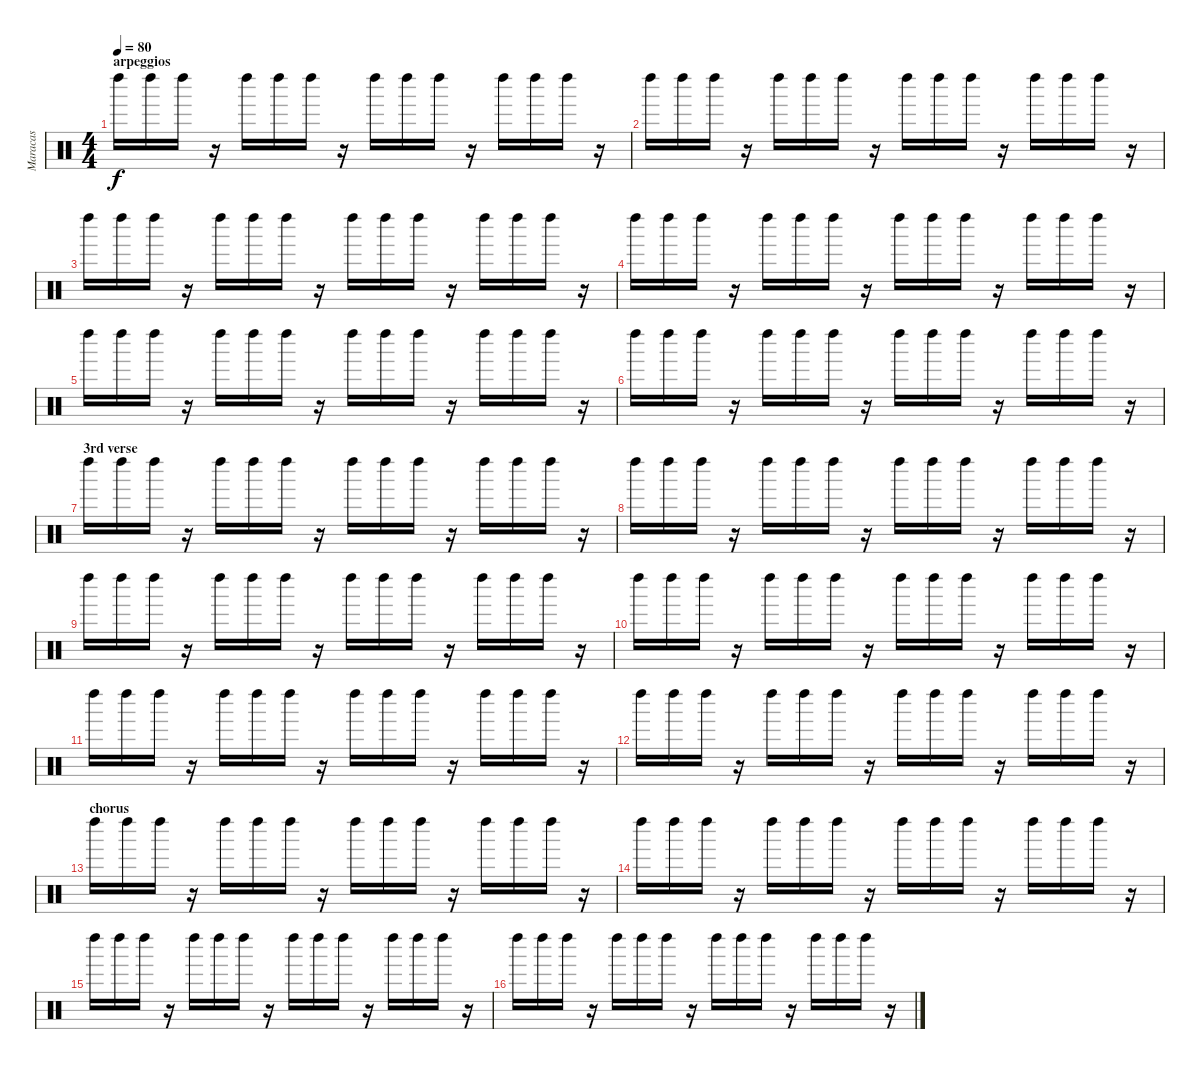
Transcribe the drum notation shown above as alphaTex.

\track ("Maracas" "Maracas") {instrument percussion}
\staff {score}
\articulation defaults
\ts (4 4)
\section ("" "arpeggios")
\tempo 80
\clef neutral
\ks aminor "Left Maraca (hit)".16{dy f} "Left Maraca (hit)".16 "Left Maraca (hit)".16
r.16 "Left Maraca (hit)".16 "Left Maraca (hit)".16 "Left Maraca (hit)".16 r.16 "Left Maraca (hit)".16 "Left Maraca (hit)".16 "Left Maraca (hit)".16 r.16 "Left Maraca (hit)".16 "Left Maraca (hit)".16 "Left Maraca (hit)".16 r.16 |
"Left Maraca (hit)".16 "Left Maraca (hit)".16 "Left Maraca (hit)".16 r.16 "Left Maraca (hit)".16 "Left Maraca (hit)".16 "Left Maraca (hit)".16 r.16 "Left Maraca (hit)".16 "Left Maraca (hit)".16 "Left Maraca (hit)".16 r.16 "Left Maraca (hit)".16 "Left Maraca (hit)".16 "Left Maraca (hit)".16 r.16 |
"Left Maraca (hit)".16 "Left Maraca (hit)".16 "Left Maraca (hit)".16 r.16 "Left Maraca (hit)".16 "Left Maraca (hit)".16 "Left Maraca (hit)".16 r.16 "Left Maraca (hit)".16 "Left Maraca (hit)".16 "Left Maraca (hit)".16 r.16 "Left Maraca (hit)".16 "Left Maraca (hit)".16 "Left Maraca (hit)".16 r.16 |
"Left Maraca (hit)".16 "Left Maraca (hit)".16 "Left Maraca (hit)".16 r.16 "Left Maraca (hit)".16 "Left Maraca (hit)".16 "Left Maraca (hit)".16 r.16 "Left Maraca (hit)".16 "Left Maraca (hit)".16 "Left Maraca (hit)".16 r.16 "Left Maraca (hit)".16 "Left Maraca (hit)".16 "Left Maraca (hit)".16 r.16 |
"Left Maraca (hit)".16 "Left Maraca (hit)".16 "Left Maraca (hit)".16 r.16 "Left Maraca (hit)".16 "Left Maraca (hit)".16 "Left Maraca (hit)".16 r.16 "Left Maraca (hit)".16 "Left Maraca (hit)".16 "Left Maraca (hit)".16 r.16 "Left Maraca (hit)".16 "Left Maraca (hit)".16 "Left Maraca (hit)".16 r.16 |
"Left Maraca (hit)".16 "Left Maraca (hit)".16 "Left Maraca (hit)".16 r.16 "Left Maraca (hit)".16 "Left Maraca (hit)".16 "Left Maraca (hit)".16 r.16 "Left Maraca (hit)".16 "Left Maraca (hit)".16 "Left Maraca (hit)".16 r.16 "Left Maraca (hit)".16 "Left Maraca (hit)".16 "Left Maraca (hit)".16 r.16 |
\section ("" "3rd verse")
"Left Maraca (hit)".16 "Left Maraca (hit)".16 "Left Maraca (hit)".16 r.16 "Left Maraca (hit)".16 "Left Maraca (hit)".16 "Left Maraca (hit)".16 r.16 "Left Maraca (hit)".16 "Left Maraca (hit)".16 "Left Maraca (hit)".16 r.16 "Left Maraca (hit)".16 "Left Maraca (hit)".16 "Left Maraca (hit)".16 r.16 |
"Left Maraca (hit)".16 "Left Maraca (hit)".16 "Left Maraca (hit)".16 r.16 "Left Maraca (hit)".16 "Left Maraca (hit)".16 "Left Maraca (hit)".16 r.16 "Left Maraca (hit)".16 "Left Maraca (hit)".16 "Left Maraca (hit)".16 r.16 "Left Maraca (hit)".16 "Left Maraca (hit)".16 "Left Maraca (hit)".16 r.16 |
"Left Maraca (hit)".16 "Left Maraca (hit)".16 "Left Maraca (hit)".16 r.16 "Left Maraca (hit)".16 "Left Maraca (hit)".16 "Left Maraca (hit)".16 r.16 "Left Maraca (hit)".16 "Left Maraca (hit)".16 "Left Maraca (hit)".16 r.16 "Left Maraca (hit)".16 "Left Maraca (hit)".16 "Left Maraca (hit)".16 r.16 |
"Left Maraca (hit)".16 "Left Maraca (hit)".16 "Left Maraca (hit)".16 r.16 "Left Maraca (hit)".16 "Left Maraca (hit)".16 "Left Maraca (hit)".16 r.16 "Left Maraca (hit)".16 "Left Maraca (hit)".16 "Left Maraca (hit)".16 r.16 "Left Maraca (hit)".16 "Left Maraca (hit)".16 "Left Maraca (hit)".16 r.16 |
"Left Maraca (hit)".16 "Left Maraca (hit)".16 "Left Maraca (hit)".16 r.16 "Left Maraca (hit)".16 "Left Maraca (hit)".16 "Left Maraca (hit)".16 r.16 "Left Maraca (hit)".16 "Left Maraca (hit)".16 "Left Maraca (hit)".16 r.16 "Left Maraca (hit)".16 "Left Maraca (hit)".16 "Left Maraca (hit)".16 r.16 |
"Left Maraca (hit)".16 "Left Maraca (hit)".16 "Left Maraca (hit)".16 r.16 "Left Maraca (hit)".16 "Left Maraca (hit)".16 "Left Maraca (hit)".16 r.16 "Left Maraca (hit)".16 "Left Maraca (hit)".16 "Left Maraca (hit)".16 r.16 "Left Maraca (hit)".16 "Left Maraca (hit)".16 "Left Maraca (hit)".16 r.16 |
\section ("" "chorus")
"Left Maraca (hit)".16 "Left Maraca (hit)".16 "Left Maraca (hit)".16 r.16 "Left Maraca (hit)".16 "Left Maraca (hit)".16 "Left Maraca (hit)".16 r.16 "Left Maraca (hit)".16 "Left Maraca (hit)".16 "Left Maraca (hit)".16 r.16 "Left Maraca (hit)".16 "Left Maraca (hit)".16 "Left Maraca (hit)".16 r.16 |
"Left Maraca (hit)".16 "Left Maraca (hit)".16 "Left Maraca (hit)".16 r.16 "Left Maraca (hit)".16 "Left Maraca (hit)".16 "Left Maraca (hit)".16 r.16 "Left Maraca (hit)".16 "Left Maraca (hit)".16 "Left Maraca (hit)".16 r.16 "Left Maraca (hit)".16 "Left Maraca (hit)".16 "Left Maraca (hit)".16 r.16 |
"Left Maraca (hit)".16 "Left Maraca (hit)".16 "Left Maraca (hit)".16 r.16 "Left Maraca (hit)".16 "Left Maraca (hit)".16 "Left Maraca (hit)".16 r.16 "Left Maraca (hit)".16 "Left Maraca (hit)".16 "Left Maraca (hit)".16 r.16 "Left Maraca (hit)".16 "Left Maraca (hit)".16 "Left Maraca (hit)".16 r.16 |
"Left Maraca (hit)".16 "Left Maraca (hit)".16 "Left Maraca (hit)".16 r.16 "Left Maraca (hit)".16 "Left Maraca (hit)".16 "Left Maraca (hit)".16 r.16 "Left Maraca (hit)".16 "Left Maraca (hit)".16 "Left Maraca (hit)".16 r.16 "Left Maraca (hit)".16 "Left Maraca (hit)".16 "Left Maraca (hit)".16 r.16
